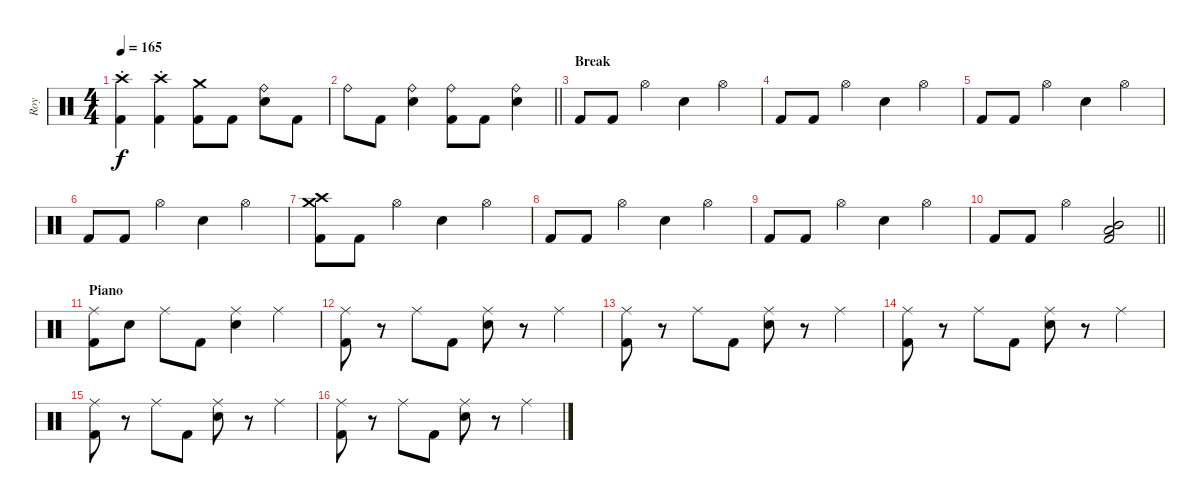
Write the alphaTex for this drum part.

\track ("Roy" "Roy") {instrument percussion}
\staff {score}
\articulation defaults
\ts (4 4)
\tempo 165
\clef neutral
\ks c
("Crash high (hit)"{st} "Kick (hit) 2").4{dy f} ("Crash high (hit)"{st} "Kick (hit) 2").4 ("Crash medium (hit)" "Kick (hit) 2").8 "Kick (hit) 2".8 ("Ride (bell)" "Electric Snare (hit)").8 "Kick (hit) 2".8 |
\barLineRight lightlight "Ride (bell)".8 "Kick (hit) 2".8
("Ride (bell)" "Electric Snare (hit)").4 ("Ride (bell)" "Kick (hit) 2").8 "Kick (hit) 2".8 ("Ride (bell)" "Electric Snare (hit)").4 |
\section ("" "Break")
"Kick (hit) 2".8 "Kick (hit) 2".8 "Hi-Hat (open)".4 "Electric Snare (hit)".4 "Hi-Hat (open)".4 |
"Kick (hit) 2".8 "Kick (hit) 2".8 "Hi-Hat (open)".4 "Electric Snare (hit)".4 "Hi-Hat (open)".4 |
"Kick (hit) 2".8 "Kick (hit) 2".8 "Hi-Hat (open)".4 "Electric Snare (hit)".4 "Hi-Hat (open)".4 |
"Kick (hit) 2".8 "Kick (hit) 2".8 "Hi-Hat (open)".4 "Electric Snare (hit)".4 "Hi-Hat (open)".4 |
("Crash high (hit)" "Crash medium (hit)" "Kick (hit) 2").8 "Kick (hit) 2".8 "Hi-Hat (open)".4 "Electric Snare (hit)".4 "Hi-Hat (open)".4 |
"Kick (hit) 2".8 "Kick (hit) 2".8 "Hi-Hat (open)".4 "Electric Snare (hit)".4 "Hi-Hat (open)".4 |
"Kick (hit) 2".8 "Kick (hit) 2".8 "Hi-Hat (open)".4 "Electric Snare (hit)".4 "Hi-Hat (open)".4 |
\barLineRight lightlight "Kick (hit) 2".8 "Kick (hit) 2".8 "Hi-Hat (open)".4
("Mid Tom (hit)" "Low Tom (hit)" "Kick (hit) 2").2 |
\section ("" "Piano")
("Ride (middle)" "Kick (hit) 2").8 "Electric Snare (hit)".8 "Ride (middle)".8 "Kick (hit) 2".8 ("Ride (middle)" "Electric Snare (hit)").4 "Ride (middle)".4 |
("Ride (middle)" "Kick (hit) 2").8 r.8 "Ride (middle)".8 "Kick (hit) 2".8 ("Ride (middle)" "Electric Snare (hit)").8 r.8 "Ride (middle)".4 |
("Ride (middle)" "Kick (hit) 2").8 r.8 "Ride (middle)".8 "Kick (hit) 2".8 ("Ride (middle)" "Electric Snare (hit)").8 r.8 "Ride (middle)".4 |
("Ride (middle)" "Kick (hit) 2").8 r.8 "Ride (middle)".8 "Kick (hit) 2".8 ("Ride (middle)" "Electric Snare (hit)").8 r.8 "Ride (middle)".4 |
("Ride (middle)" "Kick (hit) 2").8 r.8 "Ride (middle)".8 "Kick (hit) 2".8 ("Ride (middle)" "Electric Snare (hit)").8 r.8 "Ride (middle)".4 |
("Ride (middle)" "Kick (hit) 2").8 r.8 "Ride (middle)".8 "Kick (hit) 2".8 ("Ride (middle)" "Electric Snare (hit)").8 r.8 "Ride (middle)".4
